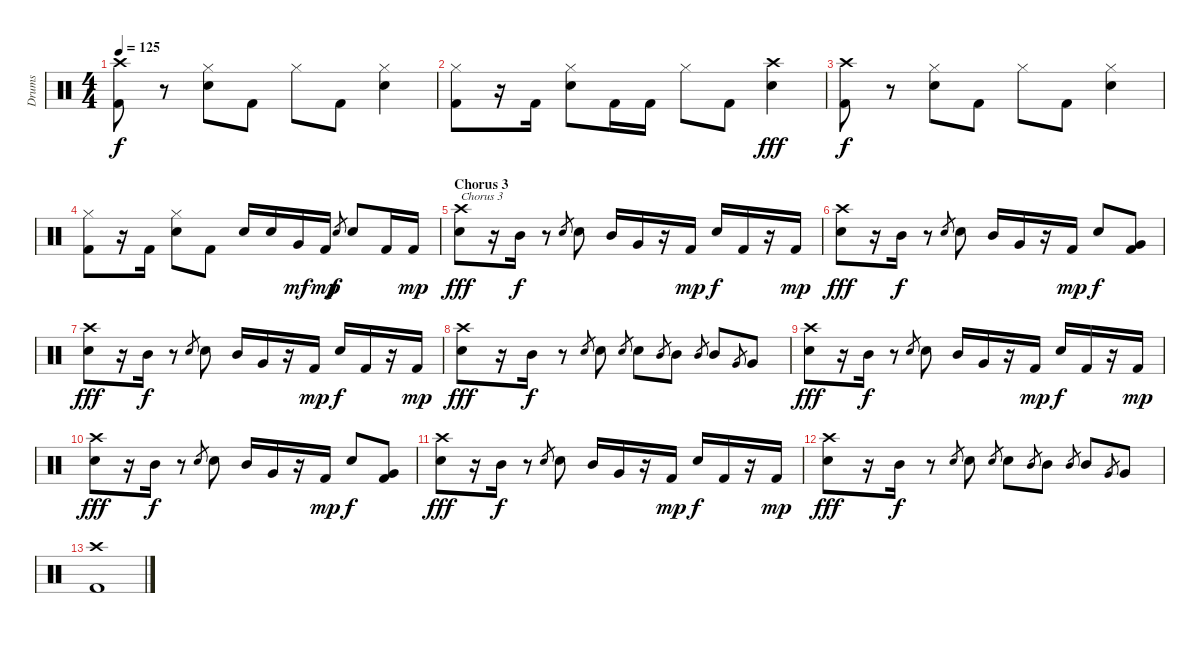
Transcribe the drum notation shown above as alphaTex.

\track ("Drums" "Drums") {instrument percussion}
\staff {score}
\articulation defaults
\ts (4 4)
\tempo 125
\clef neutral
\ks c
("Crash high (hit)" "Kick (hit) 2").8{dy f} r.8 ("Hi-Hat (closed)" "Electric Snare (hit)").8 "Kick (hit) 2".8 "Hi-Hat (closed)".8 "Kick (hit) 2".8 ("Hi-Hat (closed)" "Electric Snare (hit)").4 |
("Hi-Hat (closed)" "Kick (hit) 2").8 r.16 "Kick (hit) 2".16 ("Hi-Hat (closed)" "Electric Snare (hit)").8 "Kick (hit) 2".16 "Kick (hit) 2".16 "Hi-Hat (closed)".8 "Kick (hit) 2".8 ("Crash high (hit)" "Electric Snare (hit)").4{dy fff} |
("Crash high (hit)" "Kick (hit) 2").8{dy f} r.8 ("Hi-Hat (closed)" "Electric Snare (hit)").8 "Kick (hit) 2".8 "Hi-Hat (closed)".8 "Kick (hit) 2".8 ("Hi-Hat (closed)" "Electric Snare (hit)").4 |
("Hi-Hat (closed)" "Kick (hit) 2").8 r.16 "Kick (hit) 2".16 ("Hi-Hat (closed)" "Electric Snare (hit)").8 "Kick (hit) 2".8 "Electric Snare (hit)".16 "Electric Snare (hit)".16 "Very Low Tom (hit)".16{dy mf} "Kick (hit) 2".16{dy mp} "Electric Snare (hit)".8{gr dy f} "Electric Snare (hit)".8 "Kick (hit) 2".16 "Kick (hit) 2".16{dy mp} |
\section ("" "Chorus 3")
("Crash high (hit)" "Electric Snare (hit)").8{txt "Chorus 3" dy fff} r.16 "Mid Tom (hit)".16{dy f} r.8 "Electric Snare (hit)".8{gr} "Electric Snare (hit)".8 "Mid Tom (hit)".16 "Very Low Tom (hit)".16 r.16 "Kick (hit) 2".16{dy mp} "Electric Snare (hit)".16{dy f} "Kick (hit) 2".16 r.16 "Kick (hit) 2".16{dy mp} |
("Crash high (hit)" "Electric Snare (hit)").8{dy fff} r.16 "Mid Tom (hit)".16{dy f} r.8 "Electric Snare (hit)".8{gr} "Electric Snare (hit)".8 "Mid Tom (hit)".16 "Very Low Tom (hit)".16 r.16 "Kick (hit) 2".16{dy mp} "Electric Snare (hit)".8{dy f} ("Very Low Tom (hit)" "Kick (hit) 2").8 |
("Crash high (hit)" "Electric Snare (hit)").8{dy fff} r.16 "Mid Tom (hit)".16{dy f} r.8 "Electric Snare (hit)".8{gr} "Electric Snare (hit)".8 "Mid Tom (hit)".16 "Very Low Tom (hit)".16 r.16 "Kick (hit) 2".16{dy mp} "Electric Snare (hit)".16{dy f} "Kick (hit) 2".16 r.16 "Kick (hit) 2".16{dy mp} |
("Crash high (hit)" "Electric Snare (hit)").8{dy fff} r.16 "Mid Tom (hit)".16{dy f} r.8 "Electric Snare (hit)".8{gr} "Electric Snare (hit)".8 "Electric Snare (hit)".8{gr} "Electric Snare (hit)".8 "Mid Tom (hit)".8{gr} "Mid Tom (hit)".8 "Mid Tom (hit)".8{gr} "Mid Tom (hit)".8 "Very Low Tom (hit)".8{gr} "Very Low Tom (hit)".8 |
("Crash high (hit)" "Electric Snare (hit)").8{dy fff} r.16 "Mid Tom (hit)".16{dy f} r.8 "Electric Snare (hit)".8{gr} "Electric Snare (hit)".8 "Mid Tom (hit)".16 "Very Low Tom (hit)".16 r.16 "Kick (hit) 2".16{dy mp} "Electric Snare (hit)".16{dy f} "Kick (hit) 2".16 r.16 "Kick (hit) 2".16{dy mp} |
("Crash high (hit)" "Electric Snare (hit)").8{dy fff} r.16 "Mid Tom (hit)".16{dy f} r.8 "Electric Snare (hit)".8{gr} "Electric Snare (hit)".8 "Mid Tom (hit)".16 "Very Low Tom (hit)".16 r.16 "Kick (hit) 2".16{dy mp} "Electric Snare (hit)".8{dy f} ("Very Low Tom (hit)" "Kick (hit) 2").8 |
("Crash high (hit)" "Electric Snare (hit)").8{dy fff} r.16 "Mid Tom (hit)".16{dy f} r.8 "Electric Snare (hit)".8{gr} "Electric Snare (hit)".8 "Mid Tom (hit)".16 "Very Low Tom (hit)".16 r.16 "Kick (hit) 2".16{dy mp} "Electric Snare (hit)".16{dy f} "Kick (hit) 2".16 r.16 "Kick (hit) 2".16{dy mp} |
("Crash high (hit)" "Electric Snare (hit)").8{dy fff} r.16 "Mid Tom (hit)".16{dy f} r.8 "Electric Snare (hit)".8{gr} "Electric Snare (hit)".8 "Electric Snare (hit)".8{gr} "Electric Snare (hit)".8 "Mid Tom (hit)".8{gr} "Mid Tom (hit)".8 "Mid Tom (hit)".8{gr} "Mid Tom (hit)".8 "Very Low Tom (hit)".8{gr} "Very Low Tom (hit)".8 |
("Crash high (hit)" "Kick (hit) 2").1
